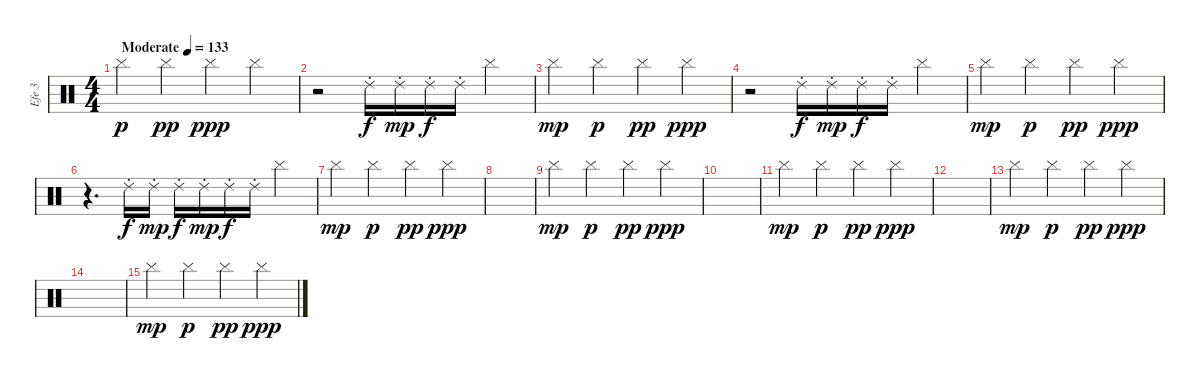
\track ("Efe 3" "Efe 3") {instrument percussion}
\staff {score}
\articulation defaults
\ts (4 4)
\tempo (133 "Moderate")
\clef neutral
\ks c "Cymbal (hit)".4{dy p} "Cymbal (hit)".4{dy pp} "Cymbal (hit)".4{dy ppp} "Cymbal (hit)".4
|
r.2 "Ride (choke) 2".16{dy f} "Ride (choke) 2".16{dy mp} "Ride (choke) 2".16{dy f} "Ride (choke) 2".16 "Cymbal (hit)".4 |
"Cymbal (hit)".4{dy mp} "Cymbal (hit)".4{dy p} "Cymbal (hit)".4{dy pp} "Cymbal (hit)".4{dy ppp} |
r.2 "Ride (choke) 2".16{dy f} "Ride (choke) 2".16{dy mp} "Ride (choke) 2".16{dy f} "Ride (choke) 2".16 "Cymbal (hit)".4 |
"Cymbal (hit)".4{dy mp} "Cymbal (hit)".4{dy p} "Cymbal (hit)".4{dy pp} "Cymbal (hit)".4{dy ppp} |
r.4{d} "Ride (choke) 2".16{dy f} "Ride (choke) 2".16{dy mp} "Ride (choke) 2".16{dy f} "Ride (choke) 2".16{dy mp} "Ride (choke) 2".16{dy f} "Ride (choke) 2".16 "Cymbal (hit)".4 |
"Cymbal (hit)".4{dy mp} "Cymbal (hit)".4{dy p} "Cymbal (hit)".4{dy pp} "Cymbal (hit)".4{dy ppp} |
|
"Cymbal (hit)".4{dy mp} "Cymbal (hit)".4{dy p} "Cymbal (hit)".4{dy pp} "Cymbal (hit)".4{dy ppp} |
|
"Cymbal (hit)".4{dy mp} "Cymbal (hit)".4{dy p} "Cymbal (hit)".4{dy pp} "Cymbal (hit)".4{dy ppp} |
|
"Cymbal (hit)".4{dy mp} "Cymbal (hit)".4{dy p} "Cymbal (hit)".4{dy pp} "Cymbal (hit)".4{dy ppp} |
|
"Cymbal (hit)".4{dy mp} "Cymbal (hit)".4{dy p} "Cymbal (hit)".4{dy pp} "Cymbal (hit)".4{dy ppp}
